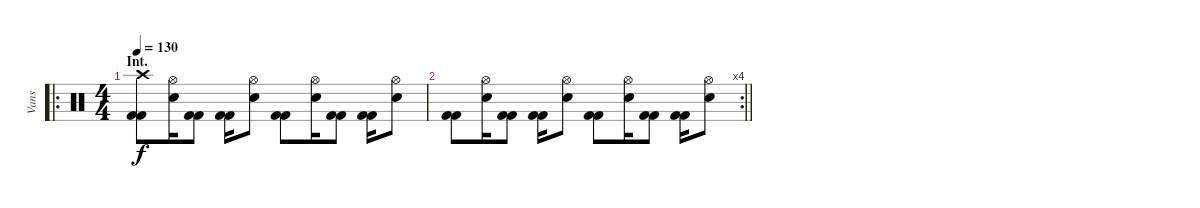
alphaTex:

\track ("Vans" "Vans") {instrument percussion}
\staff {score}
\articulation defaults
\ro
\ts (4 4)
\section ("" "Int.")
\tempo 130
\clef neutral
\ks c
("Crash high (hit)" "Kick (hit) 2" "Kick (hit) 2").8{dy f} ("Hi-Hat (open)" "Snare (hit) 2").16 ("Kick (hit) 2" "Kick (hit) 2").8 ("Kick (hit) 2" "Kick (hit) 2").16 ("Hi-Hat (open)" "Snare (hit) 2").8 ("Kick (hit) 2" "Kick (hit) 2").8 ("Hi-Hat (open)" "Snare (hit) 2").16 ("Kick (hit) 2" "Kick (hit) 2").8 ("Kick (hit) 2" "Kick (hit) 2").16 ("Hi-Hat (open)" "Snare (hit) 2").8 |
\rc 4
\barLineRight lightlight
("Kick (hit) 2" "Kick (hit) 2").8 ("Hi-Hat (open)" "Snare (hit) 2").16 ("Kick (hit) 2" "Kick (hit) 2").8 ("Kick (hit) 2" "Kick (hit) 2").16 ("Hi-Hat (open)" "Snare (hit) 2").8 ("Kick (hit) 2" "Kick (hit) 2").8 ("Hi-Hat (open)" "Snare (hit) 2").16 ("Kick (hit) 2" "Kick (hit) 2").8 ("Kick (hit) 2" "Kick (hit) 2").16 ("Hi-Hat (open)" "Snare (hit) 2").8
